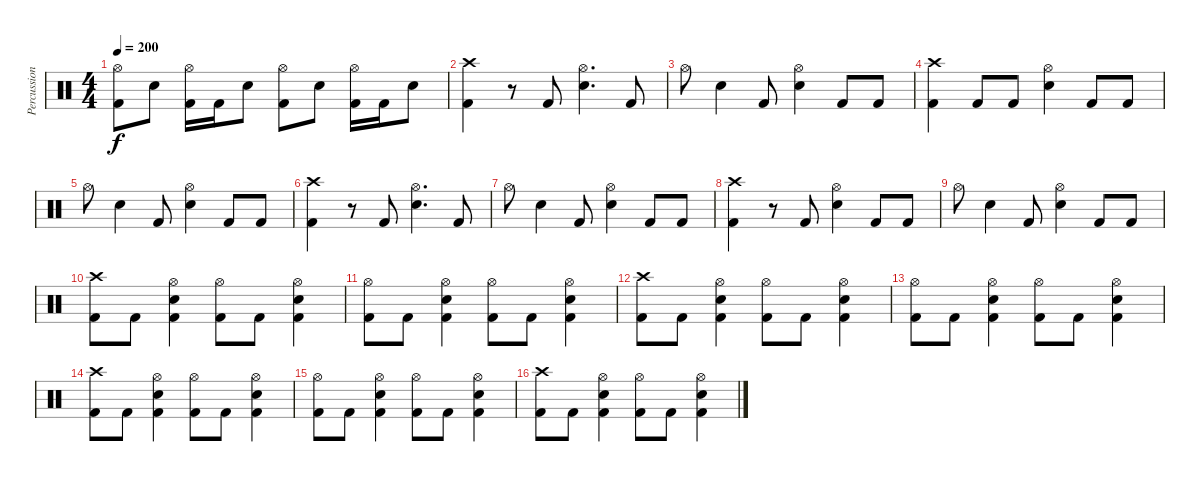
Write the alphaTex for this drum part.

\track ("Percussion" "Percussion") {instrument percussion}
\staff {score}
\articulation defaults
\ts (4 4)
\tempo 200
\clef neutral
\ks c
("Hi-Hat (open)" "Kick (hit) 2").8{dy f} "Snare (hit) 2".8 ("Hi-Hat (open)" "Kick (hit) 2").16 "Kick (hit) 2".16 "Snare (hit) 2".8 ("Hi-Hat (open)" "Kick (hit) 2").8 "Snare (hit) 2".8 ("Hi-Hat (open)" "Kick (hit) 2").16 "Kick (hit) 2".16 "Snare (hit) 2".8 |
("Crash high (hit)" "Kick (hit) 2").4 r.8 "Kick (hit) 2".8 ("Hi-Hat (open)" "Snare (hit) 2").4{d} "Kick (hit) 2".8 |
"Hi-Hat (open)".8 "Snare (hit) 2".4 "Kick (hit) 2".8 ("Hi-Hat (open)" "Snare (hit) 2").4 "Kick (hit) 2".8 "Kick (hit) 2".8 |
("Crash high (hit)" "Kick (hit) 2").4 "Kick (hit) 2".8 "Kick (hit) 2".8 ("Hi-Hat (open)" "Snare (hit) 2").4 "Kick (hit) 2".8 "Kick (hit) 2".8 |
"Hi-Hat (open)".8 "Snare (hit) 2".4 "Kick (hit) 2".8 ("Hi-Hat (open)" "Snare (hit) 2").4 "Kick (hit) 2".8 "Kick (hit) 2".8 |
("Crash high (hit)" "Kick (hit) 2").4 r.8 "Kick (hit) 2".8 ("Hi-Hat (open)" "Snare (hit) 2").4{d} "Kick (hit) 2".8 |
"Hi-Hat (open)".8 "Snare (hit) 2".4 "Kick (hit) 2".8 ("Hi-Hat (open)" "Snare (hit) 2").4 "Kick (hit) 2".8 "Kick (hit) 2".8 |
("Crash high (hit)" "Kick (hit) 2").4 r.8 "Kick (hit) 2".8 ("Hi-Hat (open)" "Snare (hit) 2").4 "Kick (hit) 2".8 "Kick (hit) 2".8 |
"Hi-Hat (open)".8 "Snare (hit) 2".4 "Kick (hit) 2".8 ("Hi-Hat (open)" "Snare (hit) 2").4 "Kick (hit) 2".8 "Kick (hit) 2".8 |
("Crash high (hit)" "Kick (hit) 2").8 "Kick (hit) 2".8 ("Hi-Hat (open)" "Snare (hit) 2" "Kick (hit) 2").4 ("Hi-Hat (open)" "Kick (hit) 2").8 "Kick (hit) 2".8 ("Hi-Hat (open)" "Snare (hit) 2" "Kick (hit) 2").4 |
("Hi-Hat (open)" "Kick (hit) 2").8 "Kick (hit) 2".8 ("Hi-Hat (open)" "Snare (hit) 2" "Kick (hit) 2").4 ("Hi-Hat (open)" "Kick (hit) 2").8 "Kick (hit) 2".8 ("Hi-Hat (open)" "Snare (hit) 2" "Kick (hit) 2").4 |
("Crash high (hit)" "Kick (hit) 2").8 "Kick (hit) 2".8 ("Hi-Hat (open)" "Snare (hit) 2" "Kick (hit) 2").4 ("Hi-Hat (open)" "Kick (hit) 2").8 "Kick (hit) 2".8 ("Hi-Hat (open)" "Snare (hit) 2" "Kick (hit) 2").4 |
("Hi-Hat (open)" "Kick (hit) 2").8 "Kick (hit) 2".8 ("Hi-Hat (open)" "Snare (hit) 2" "Kick (hit) 2").4 ("Hi-Hat (open)" "Kick (hit) 2").8 "Kick (hit) 2".8 ("Hi-Hat (open)" "Snare (hit) 2" "Kick (hit) 2").4 |
("Crash high (hit)" "Kick (hit) 2").8 "Kick (hit) 2".8 ("Hi-Hat (open)" "Snare (hit) 2" "Kick (hit) 2").4 ("Hi-Hat (open)" "Kick (hit) 2").8 "Kick (hit) 2".8 ("Hi-Hat (open)" "Snare (hit) 2" "Kick (hit) 2").4 |
("Hi-Hat (open)" "Kick (hit) 2").8 "Kick (hit) 2".8 ("Hi-Hat (open)" "Snare (hit) 2" "Kick (hit) 2").4 ("Hi-Hat (open)" "Kick (hit) 2").8 "Kick (hit) 2".8 ("Hi-Hat (open)" "Snare (hit) 2" "Kick (hit) 2").4 |
("Crash high (hit)" "Kick (hit) 2").8 "Kick (hit) 2".8 ("Hi-Hat (open)" "Snare (hit) 2" "Kick (hit) 2").4 ("Hi-Hat (open)" "Kick (hit) 2").8 "Kick (hit) 2".8 ("Hi-Hat (open)" "Snare (hit) 2" "Kick (hit) 2").4
